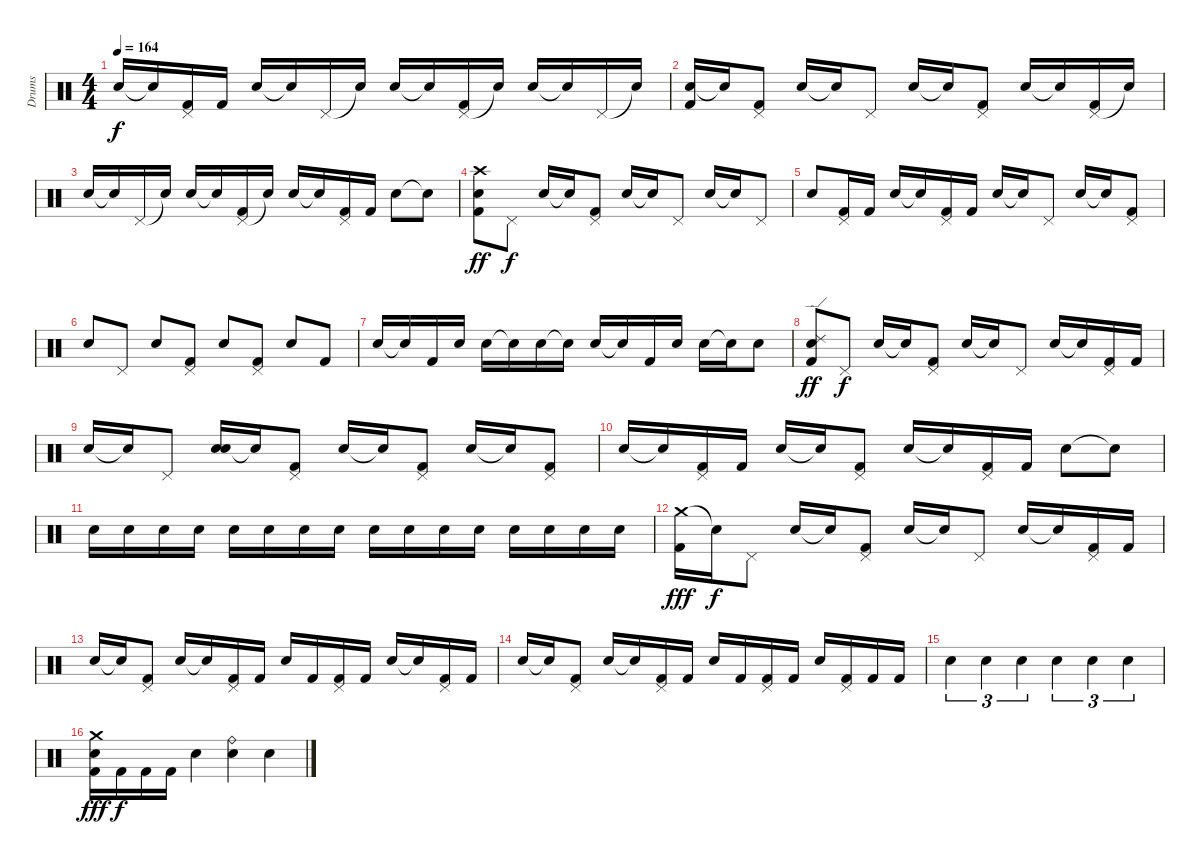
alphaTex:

\track ("Drums" "Drums") {instrument percussion}
\staff {score}
\articulation defaults
\ts (4 4)
\tempo 164
\clef neutral
\ks c "Electric Snare (hit)".16{dy f} "Snare (hit)"{t}.16
("Pedal Hi-Hat (hit)" "Kick (hit) 2").16 "Kick (hit) 2".16 "Electric Snare (hit)".16 "Snare (hit)"{t}.16 "Pedal Hi-Hat (hit)".16 "Snare (hit)"{t}.16 "Electric Snare (hit)".16 "Snare (hit)"{t}.16 ("Pedal Hi-Hat (hit)" "Kick (hit) 2").16 "Snare (hit)"{t}.16 "Electric Snare (hit)".16 "Snare (hit)"{t}.16 "Pedal Hi-Hat (hit)".16 "Snare (hit)"{t}.16 |
("Electric Snare (hit)" "Kick (hit) 2").16 "Snare (hit)"{t}.16 ("Pedal Hi-Hat (hit)" "Kick (hit) 2").8 "Electric Snare (hit)".16 "Snare (hit)"{t}.16 "Pedal Hi-Hat (hit)".8 "Electric Snare (hit)".16 "Snare (hit)"{t}.16 ("Pedal Hi-Hat (hit)" "Kick (hit) 2").8 "Electric Snare (hit)".16 "Snare (hit)"{t}.16 ("Pedal Hi-Hat (hit)" "Kick (hit) 2").16 "Snare (hit)"{t}.16 |
"Electric Snare (hit)".16 "Snare (hit)"{t}.16 "Pedal Hi-Hat (hit)".16 "Snare (hit)"{t}.16 "Electric Snare (hit)".16 "Snare (hit)"{t}.16 ("Pedal Hi-Hat (hit)" "Kick (hit) 2").16 "Snare (hit)"{t}.16 "Electric Snare (hit)".16 "Snare (hit)"{t}.16 ("Pedal Hi-Hat (hit)" "Kick (hit) 2").16 "Kick (hit) 2".16 "Electric Snare (hit)".8 "Snare (hit)"{t}.8 |
("Crash high (hit)" "Electric Snare (hit)" "Kick (hit) 2").8{dy ff} "Pedal Hi-Hat (hit)".8{dy f} "Electric Snare (hit)".16 "Snare (hit)"{t}.16 ("Pedal Hi-Hat (hit)" "Kick (hit) 2").8 "Electric Snare (hit)".16 "Snare (hit)"{t}.16 "Pedal Hi-Hat (hit)".8 "Electric Snare (hit)".16 "Snare (hit)"{t}.16 "Pedal Hi-Hat (hit)".8 |
"Electric Snare (hit)".8 ("Pedal Hi-Hat (hit)" "Kick (hit) 2").16 "Kick (hit) 2".16 "Electric Snare (hit)".16 "Snare (hit)"{t}.16 ("Pedal Hi-Hat (hit)" "Kick (hit) 2").16 "Kick (hit) 2".16 "Electric Snare (hit)".16 "Snare (hit)"{t}.16 "Pedal Hi-Hat (hit)".8 "Electric Snare (hit)".16 "Snare (hit)"{t}.16 ("Pedal Hi-Hat (hit)" "Kick (hit) 2").8 |
"Electric Snare (hit)".8 "Pedal Hi-Hat (hit)".8 "Electric Snare (hit)".8 ("Pedal Hi-Hat (hit)" "Kick (hit) 2").8 "Electric Snare (hit)".8 ("Pedal Hi-Hat (hit)" "Kick (hit) 2").8 "Electric Snare (hit)".8 "Kick (hit) 2".8 |
"Electric Snare (hit)".16 "Snare (hit)"{t}.16 "Kick (hit) 2".16 "Electric Snare (hit)".16 "Electric Snare (hit)".16 "Snare (hit)"{t}.16 "Electric Snare (hit)".16 "Snare (hit)"{t}.16 "Electric Snare (hit)".16 "Snare (hit)"{t}.16 "Kick (hit) 2".16 "Electric Snare (hit)".16 "Electric Snare (hit)".16 "Snare (hit)"{t}.16 "Electric Snare (hit)".8 |
("Ride (edge) 2" "Electric Snare (hit)" "Kick (hit) 2").8{dy ff} "Pedal Hi-Hat (hit)".8{dy f} "Electric Snare (hit)".16 "Snare (hit)"{t}.16 ("Pedal Hi-Hat (hit)" "Kick (hit) 2").8 "Electric Snare (hit)".16 "Snare (hit)"{t}.16 "Pedal Hi-Hat (hit)".8 "Electric Snare (hit)".16 "Snare (hit)"{t}.16 ("Pedal Hi-Hat (hit)" "Kick (hit) 2").16 "Kick (hit) 2".16 |
"Electric Snare (hit)".16 "Snare (hit)"{t}.16 "Pedal Hi-Hat (hit)".8 ("Electric Snare (hit)" "Electric Snare (hit)").16 "Snare (hit)"{t}.16 ("Pedal Hi-Hat (hit)" "Kick (hit) 2").8 "Electric Snare (hit)".16 "Snare (hit)"{t}.16 ("Pedal Hi-Hat (hit)" "Kick (hit) 2").8 "Electric Snare (hit)".16 "Snare (hit)"{t}.16 ("Pedal Hi-Hat (hit)" "Kick (hit) 2").8 |
"Electric Snare (hit)".16 "Snare (hit)"{t}.16 ("Pedal Hi-Hat (hit)" "Kick (hit) 2").16 "Kick (hit) 2".16 "Electric Snare (hit)".16 "Snare (hit)"{t}.16 ("Pedal Hi-Hat (hit)" "Kick (hit) 2").8 "Electric Snare (hit)".16 "Snare (hit)"{t}.16 ("Pedal Hi-Hat (hit)" "Kick (hit) 2").16 "Kick (hit) 2".16 "Electric Snare (hit)".8 "Snare (hit)"{t}.8 |
"Snare (hit) 2".16 "Electric Snare (hit)".16 "Snare (hit) 2".16 "Electric Snare (hit)".16 "Snare (hit) 2".16 "Electric Snare (hit)".16 "Snare (hit) 2".16 "Electric Snare (hit)".16 "Snare (hit) 2".16 "Electric Snare (hit)".16 "Snare (hit) 2".16 "Electric Snare (hit)".16 "Snare (hit) 2".16 "Electric Snare (hit)".16 "Snare (hit) 2".16 "Electric Snare (hit)".16 |
("Crash medium (hit)" "Kick (hit) 2").16{dy fff} "Snare (hit)"{t}.16{dy f} "Pedal Hi-Hat (hit)".8 "Electric Snare (hit)".16 "Snare (hit)"{t}.16 ("Pedal Hi-Hat (hit)" "Kick (hit) 2").8 "Electric Snare (hit)".16 "Snare (hit)"{t}.16 "Pedal Hi-Hat (hit)".8 "Electric Snare (hit)".16 "Snare (hit)"{t}.16 ("Pedal Hi-Hat (hit)" "Kick (hit) 2").16 "Kick (hit) 2".16 |
"Electric Snare (hit)".16 "Snare (hit)"{t}.16 ("Pedal Hi-Hat (hit)" "Kick (hit) 2").8 "Electric Snare (hit)".16 "Snare (hit)"{t}.16 ("Pedal Hi-Hat (hit)" "Kick (hit) 2").16 "Kick (hit) 2".16 "Electric Snare (hit)".16 "Kick (hit) 2".16 ("Pedal Hi-Hat (hit)" "Kick (hit) 2").16 "Kick (hit) 2".16 "Electric Snare (hit)".16 "Snare (hit)"{t}.16 ("Pedal Hi-Hat (hit)" "Kick (hit) 2").16 "Kick (hit) 2".16 |
"Electric Snare (hit)".16 "Snare (hit)"{t}.16 ("Pedal Hi-Hat (hit)" "Kick (hit) 2").8 "Electric Snare (hit)".16 "Snare (hit)"{t}.16 ("Pedal Hi-Hat (hit)" "Kick (hit) 2").16 "Kick (hit) 2".16 "Electric Snare (hit)".16 "Kick (hit) 2".16 ("Pedal Hi-Hat (hit)" "Kick (hit) 2").16 "Kick (hit) 2".16 "Electric Snare (hit)".16 ("Pedal Hi-Hat (hit)" "Kick (hit) 2").16 "Kick (hit) 2".16 "Kick (hit) 2".16 |
"Snare (hit) 2".4{tu (3 2)} "Snare (hit) 2".4{tu (3 2)} "Snare (hit) 2".4{tu (3 2)} "Snare (hit) 2".4{tu (3 2)} "Snare (hit) 2".4{tu (3 2)} "Snare (hit) 2".4{tu (3 2)} |
("Crash medium (hit)" "Electric Snare (hit)" "Kick (hit) 2").16{dy fff} "Kick (hit) 2".16{dy f} "Kick (hit) 2".16 "Kick (hit) 2".16 "Electric Snare (hit)".4 ("Ride (bell)" "Electric Snare (hit)").4 "Electric Snare (hit)".4
